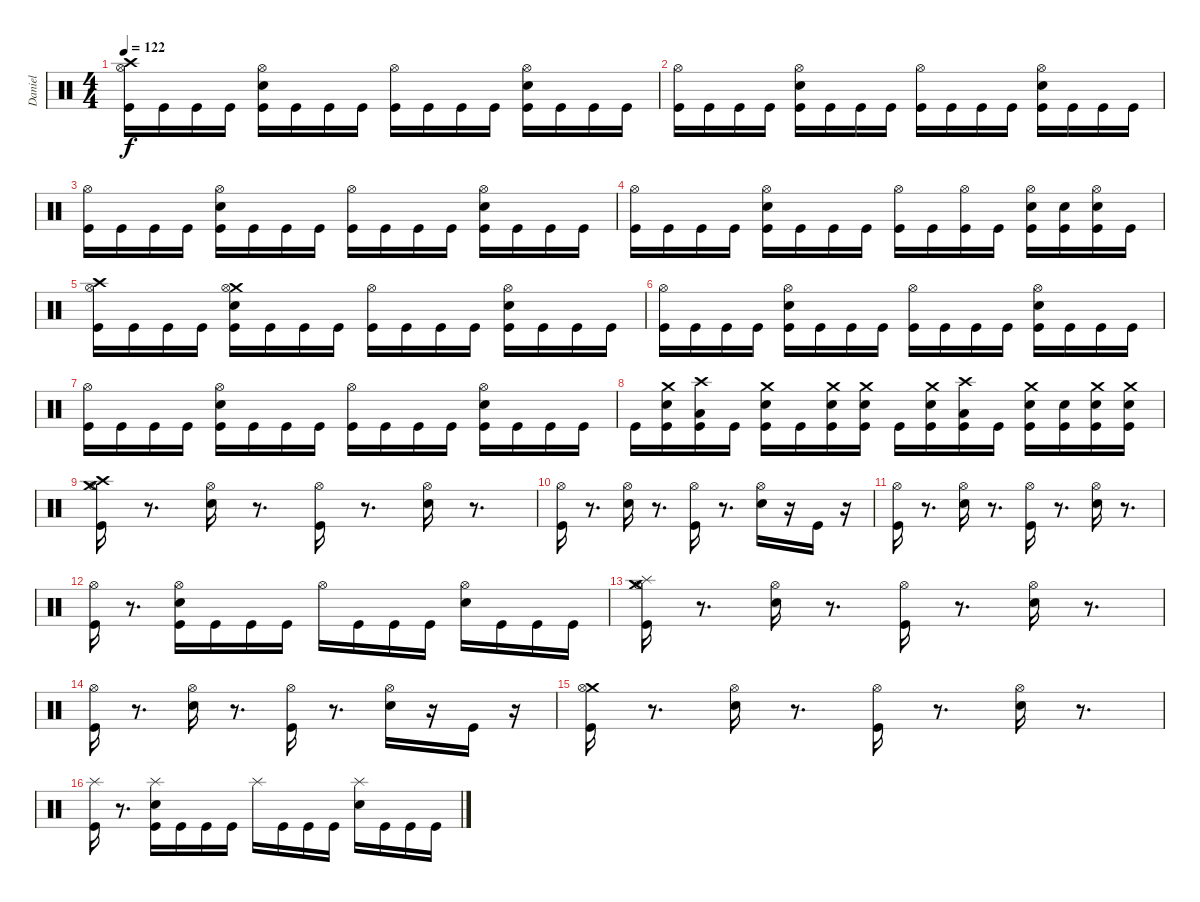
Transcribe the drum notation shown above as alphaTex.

\track ("Daniel" "Daniel") {instrument percussion}
\staff {score}
\articulation defaults
\ts (4 4)
\tempo 122
\clef neutral
\ks c
("Crash high (hit)" "Hi-Hat (open)" "Kick (hit)").16{dy f} "Kick (hit)".16 "Kick (hit)".16 "Kick (hit)".16 ("Electric Snare (hit)" "Hi-Hat (open)" "Kick (hit)").16 "Kick (hit)".16 "Kick (hit)".16 "Kick (hit)".16 ("Hi-Hat (open)" "Kick (hit)").16 "Kick (hit)".16 "Kick (hit)".16 "Kick (hit)".16 ("Electric Snare (hit)" "Hi-Hat (open)" "Kick (hit)").16 "Kick (hit)".16 "Kick (hit)".16 "Kick (hit)".16 |
("Hi-Hat (open)" "Kick (hit)").16 "Kick (hit)".16 "Kick (hit)".16 "Kick (hit)".16 ("Electric Snare (hit)" "Hi-Hat (open)" "Kick (hit)").16 "Kick (hit)".16 "Kick (hit)".16 "Kick (hit)".16 ("Hi-Hat (open)" "Kick (hit)").16 "Kick (hit)".16 "Kick (hit)".16 "Kick (hit)".16 ("Electric Snare (hit)" "Hi-Hat (open)" "Kick (hit)").16 "Kick (hit)".16 "Kick (hit)".16 "Kick (hit)".16 |
("Hi-Hat (open)" "Kick (hit)").16 "Kick (hit)".16 "Kick (hit)".16 "Kick (hit)".16 ("Electric Snare (hit)" "Hi-Hat (open)" "Kick (hit)").16 "Kick (hit)".16 "Kick (hit)".16 "Kick (hit)".16 ("Hi-Hat (open)" "Kick (hit)").16 "Kick (hit)".16 "Kick (hit)".16 "Kick (hit)".16 ("Electric Snare (hit)" "Hi-Hat (open)" "Kick (hit)").16 "Kick (hit)".16 "Kick (hit)".16 "Kick (hit)".16 |
("Hi-Hat (open)" "Kick (hit)").16 "Kick (hit)".16 "Kick (hit)".16 "Kick (hit)".16 ("Electric Snare (hit)" "Hi-Hat (open)" "Kick (hit)").16 "Kick (hit)".16 "Kick (hit)".16 "Kick (hit)".16 ("Hi-Hat (open)" "Kick (hit)").16 "Kick (hit)".16 ("Hi-Hat (open)" "Kick (hit)").16 "Kick (hit)".16 ("Electric Snare (hit)" "Hi-Hat (open)" "Kick (hit)").16 ("Snare (hit) 2" "Kick (hit)").16 ("Snare (hit) 2" "Hi-Hat (open)" "Kick (hit)").16 "Kick (hit)".16 |
("Hi-Hat (open)" "Crash high (hit)" "Kick (hit)").16 "Kick (hit)".16 "Kick (hit)".16 "Kick (hit)".16 ("Crash medium (hit)" "Electric Snare (hit)" "Hi-Hat (open)" "Kick (hit)").16 "Kick (hit)".16 "Kick (hit)".16 "Kick (hit)".16 ("Hi-Hat (open)" "Kick (hit)").16 "Kick (hit)".16 "Kick (hit)".16 "Kick (hit)".16 ("Electric Snare (hit)" "Hi-Hat (open)" "Kick (hit)").16 "Kick (hit)".16 "Kick (hit)".16 "Kick (hit)".16 |
("Hi-Hat (open)" "Kick (hit)").16 "Kick (hit)".16 "Kick (hit)".16 "Kick (hit)".16 ("Electric Snare (hit)" "Hi-Hat (open)" "Kick (hit)").16 "Kick (hit)".16 "Kick (hit)".16 "Kick (hit)".16 ("Hi-Hat (open)" "Kick (hit)").16 "Kick (hit)".16 "Kick (hit)".16 "Kick (hit)".16 ("Electric Snare (hit)" "Hi-Hat (open)" "Kick (hit)").16 "Kick (hit)".16 "Kick (hit)".16 "Kick (hit)".16 |
("Hi-Hat (open)" "Kick (hit)").16 "Kick (hit)".16 "Kick (hit)".16 "Kick (hit)".16 ("Electric Snare (hit)" "Hi-Hat (open)" "Kick (hit)").16 "Kick (hit)".16 "Kick (hit)".16 "Kick (hit)".16 ("Hi-Hat (open)" "Kick (hit)").16 "Kick (hit)".16 "Kick (hit)".16 "Kick (hit)".16 ("Electric Snare (hit)" "Hi-Hat (open)" "Kick (hit)").16 "Kick (hit)".16 "Kick (hit)".16 "Kick (hit)".16 |
"Kick (hit)".16 ("Electric Snare (hit)" "Crash medium (hit)" "Kick (hit)").16 ("Low Tom (hit)" "Crash high (hit)" "Kick (hit)").16 "Kick (hit)".16 ("Electric Snare (hit)" "Crash medium (hit)" "Kick (hit)").16 "Kick (hit)".16 ("Crash medium (hit)" "Electric Snare (hit)" "Kick (hit)").16 ("Electric Snare (hit)" "Crash medium (hit)" "Kick (hit)").16 "Kick (hit)".16 ("Electric Snare (hit)" "Crash medium (hit)" "Kick (hit)").16 ("Low Tom (hit)" "Crash high (hit)" "Kick (hit)").16 "Kick (hit)".16 ("Electric Snare (hit)" "Crash medium (hit)" "Kick (hit)").16 ("Electric Snare (hit)" "Kick (hit)").16 ("Electric Snare (hit)" "Crash medium (hit)" "Kick (hit)").16 ("Electric Snare (hit)" "Crash medium (hit)" "Kick (hit)").16 |
("Crash medium (hit)" "Crash high (hit)" "Kick (hit)" "Hi-Hat (open)").16 r.8{d} ("Electric Snare (hit)" "Hi-Hat (open)").16 r.8{d} ("Kick (hit)" "Hi-Hat (open)").16 r.8{d} ("Electric Snare (hit)" "Hi-Hat (open)").16 r.8{d} |
("Kick (hit)" "Hi-Hat (open)").16 r.8{d} ("Electric Snare (hit)" "Hi-Hat (open)").16 r.8{d} ("Kick (hit)" "Hi-Hat (open)").16 r.8{d} ("Electric Snare (hit)" "Hi-Hat (open)").16 r.16 "Kick (hit)".16 r.16 |
("Kick (hit)" "Hi-Hat (open)").16 r.8{d} ("Electric Snare (hit)" "Hi-Hat (open)").16 r.8{d} ("Kick (hit)" "Hi-Hat (open)").16 r.8{d} ("Electric Snare (hit)" "Hi-Hat (open)").16 r.8{d} |
("Kick (hit)" "Hi-Hat (open)").16 r.8{d} ("Kick (hit)" "Electric Snare (hit)" "Hi-Hat (open)").16 "Kick (hit)".16 "Kick (hit)".16 "Kick (hit)".16 "Hi-Hat (open)".16 "Kick (hit)".16 "Kick (hit)".16 "Kick (hit)".16 ("Electric Snare (hit)" "Hi-Hat (open)").16 "Kick (hit)".16 "Kick (hit)".16 "Kick (hit)".16 |
("Splash (hit)" "Crash medium (hit)" "Kick (hit)" "Hi-Hat (open)").16 r.8{d} ("Electric Snare (hit)" "Hi-Hat (open)").16 r.8{d} ("Kick (hit)" "Hi-Hat (open)").16 r.8{d} ("Electric Snare (hit)" "Hi-Hat (open)").16 r.8{d} |
("Kick (hit)" "Hi-Hat (open)").16 r.8{d} ("Electric Snare (hit)" "Hi-Hat (open)").16 r.8{d} ("Kick (hit)" "Hi-Hat (open)").16 r.8{d} ("Electric Snare (hit)" "Hi-Hat (open)").16 r.16 "Kick (hit)".16 r.16 |
("Crash medium (hit)" "Kick (hit)" "Hi-Hat (open)").16 r.8{d} ("Electric Snare (hit)" "Hi-Hat (open)").16 r.8{d} ("Kick (hit)" "Hi-Hat (open)").16 r.8{d} ("Electric Snare (hit)" "Hi-Hat (open)").16 r.8{d} |
("Splash (hit)" "Kick (hit)").16 r.8{d} ("Splash (hit)" "Kick (hit)" "Electric Snare (hit)").16 "Kick (hit)".16 "Kick (hit)".16 "Kick (hit)".16 "Splash (hit)".16 "Kick (hit)".16 "Kick (hit)".16 "Kick (hit)".16 ("Splash (hit)" "Electric Snare (hit)").16 "Kick (hit)".16 "Kick (hit)".16 "Kick (hit)".16
